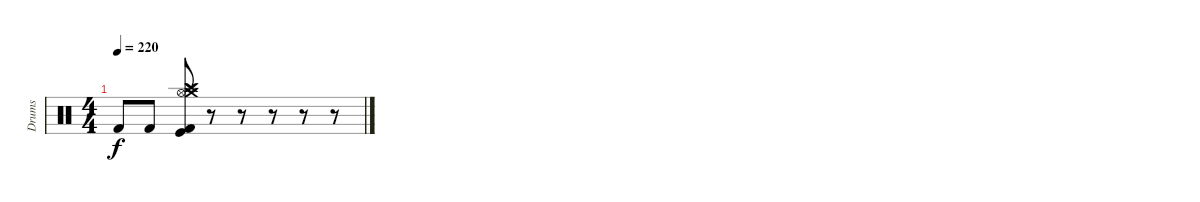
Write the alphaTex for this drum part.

\track ("Drums" "Drums") {instrument percussion}
\staff {score}
\articulation defaults
\ts (4 4)
\tempo 220
\clef neutral
\ks c "Kick (hit) 2".8{dy f} "Kick (hit) 2".8
("Hi-Hat (open)" "Splash (hit)" "Crash medium (hit)" "Crash high (hit)" "Kick (hit) 2" "Kick (hit)").8 r.8 r.8 r.8 r.8 r.8
